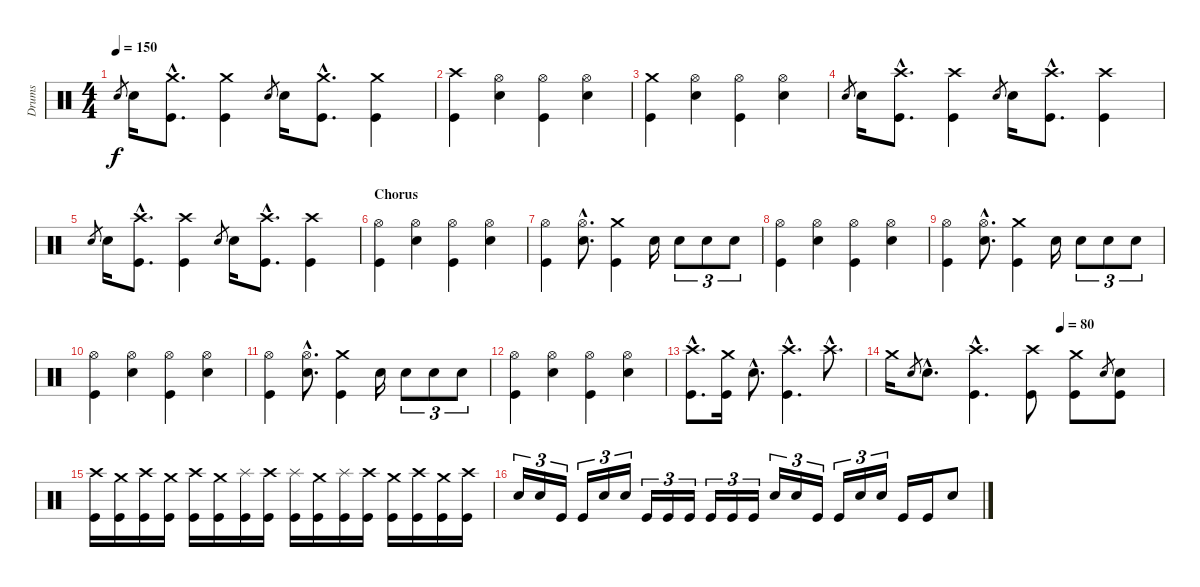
\track ("Drums" "Drums") {instrument percussion}
\staff {score}
\articulation defaults
\ts (4 4)
\tempo 150
\clef neutral
\ks c "Snare (hit) 2".8{gr dy f} "Snare (hit) 2".16
("Crash medium (hit)"{hac} "Kick (hit)"{hac}).8{d} ("Crash medium (hit)" "Kick (hit)").4 "Snare (hit) 2".8{gr} "Snare (hit) 2".16 ("Crash medium (hit)"{hac} "Kick (hit)"{hac}).8{d} ("Crash medium (hit)" "Kick (hit)").4 |
("Crash high (hit)" "Kick (hit)").4 ("Hi-Hat (open)" "Snare (hit) 2").4 ("Hi-Hat (open)" "Kick (hit)").4 ("Hi-Hat (open)" "Snare (hit) 2").4 |
("Crash medium (hit)" "Kick (hit)").4 ("Hi-Hat (open)" "Snare (hit) 2").4 ("Hi-Hat (open)" "Kick (hit)").4 ("Hi-Hat (open)" "Snare (hit) 2").4 |
"Snare (hit) 2".8{gr} "Snare (hit) 2".16 ("Crash high (hit)"{hac} "Kick (hit)"{hac}).8{d} ("Crash high (hit)" "Kick (hit)").4 "Snare (hit) 2".8{gr} "Snare (hit) 2".16 ("Crash high (hit)"{hac} "Kick (hit)"{hac}).8{d} ("Crash high (hit)" "Kick (hit)").4 |
"Snare (hit) 2".8{gr} "Snare (hit) 2".16 ("Crash high (hit)"{hac} "Kick (hit)"{hac}).8{d} ("Crash high (hit)" "Kick (hit)").4 "Snare (hit) 2".8{gr} "Snare (hit) 2".16 ("Crash high (hit)"{hac} "Kick (hit)"{hac}).8{d} ("Crash high (hit)" "Kick (hit)").4 |
\section ("" "Chorus")
("Hi-Hat (open)" "Kick (hit)").4 ("Hi-Hat (open)" "Snare (hit) 2").4 ("Hi-Hat (open)" "Kick (hit)").4 ("Hi-Hat (open)" "Snare (hit) 2").4 |
("Hi-Hat (open)" "Kick (hit)").4 ("Hi-Hat (open)"{hac} "Snare (hit) 2"{hac}).8{d} ("Crash medium (hit)" "Kick (hit)").4 "Snare (hit) 2".16 "Snare (hit) 2".8{tu (3 2)} "Snare (hit) 2".8{tu (3 2)} "Snare (hit) 2".8{tu (3 2)} |
("Hi-Hat (open)" "Kick (hit)").4 ("Hi-Hat (open)" "Snare (hit) 2").4 ("Hi-Hat (open)" "Kick (hit)").4 ("Hi-Hat (open)" "Snare (hit) 2").4 |
("Hi-Hat (open)" "Kick (hit)").4 ("Hi-Hat (open)"{hac} "Snare (hit) 2"{hac}).8{d} ("Crash medium (hit)" "Kick (hit)").4 "Snare (hit) 2".16 "Snare (hit) 2".8{tu (3 2)} "Snare (hit) 2".8{tu (3 2)} "Snare (hit) 2".8{tu (3 2)} |
("Hi-Hat (open)" "Kick (hit)").4 ("Hi-Hat (open)" "Snare (hit) 2").4 ("Hi-Hat (open)" "Kick (hit)").4 ("Hi-Hat (open)" "Snare (hit) 2").4 |
("Hi-Hat (open)" "Kick (hit)").4 ("Hi-Hat (open)"{hac} "Snare (hit) 2"{hac}).8{d} ("Crash medium (hit)" "Kick (hit)").4 "Snare (hit) 2".16 "Snare (hit) 2".8{tu (3 2)} "Snare (hit) 2".8{tu (3 2)} "Snare (hit) 2".8{tu (3 2)} |
("Hi-Hat (open)" "Kick (hit)").4 ("Hi-Hat (open)" "Snare (hit) 2").4 ("Hi-Hat (open)" "Kick (hit)").4 ("Hi-Hat (open)" "Snare (hit) 2").4 |
("Crash high (hit)"{hac} "Kick (hit)"{hac}).8{d} ("Crash medium (hit)" "Kick (hit)").16 "Snare (hit) 2"{hac}.8{d} ("Crash high (hit)"{hac} "Kick (hit)"{hac}).4{d} "Crash high (hit)"{hac}.8{d} |
\tempo (80 0.625)
"Crash medium (hit)".16 "Snare (hit) 2".8{gr} "Snare (hit) 2"{hac}.8{d} ("Crash high (hit)"{hac} "Kick (hit)"{hac}).4{d} ("Crash high (hit)" "Kick (hit)").8 ("Crash medium (hit)" "Kick (hit)").8 "Snare (hit) 2".8{gr} ("Snare (hit) 2" "Kick (hit)").8 |
("Crash high (hit)" "Kick (hit)").16 ("Crash medium (hit)" "Kick (hit)").16 ("Crash high (hit)" "Kick (hit)").16 ("Crash medium (hit)" "Kick (hit)").16 ("Crash high (hit)" "Kick (hit)").16 ("Crash medium (hit)" "Kick (hit)").16 ("Splash (hit)" "Kick (hit)").16 ("Crash high (hit)" "Kick (hit)").16 ("Splash (hit)" "Kick (hit)").16 ("Crash medium (hit)" "Kick (hit)").16 ("Splash (hit)" "Kick (hit)").16 ("Crash high (hit)" "Kick (hit)").16 ("Crash medium (hit)" "Kick (hit)").16 ("Crash high (hit)" "Kick (hit)").16 ("Crash medium (hit)" "Kick (hit)").16 ("Crash high (hit)" "Kick (hit)").16 |
"Snare (hit) 2".16{tu (3 2)} "Snare (hit) 2".16{tu (3 2)} "Kick (hit)".16{tu (3 2)} "Kick (hit)".16{tu (3 2)} "Snare (hit) 2".16{tu (3 2)} "Snare (hit) 2".16{tu (3 2)} "Kick (hit)".16{tu (3 2)} "Kick (hit)".16{tu (3 2)} "Kick (hit)".16{tu (3 2)} "Kick (hit)".16{tu (3 2)} "Kick (hit)".16{tu (3 2)} "Kick (hit)".16{tu (3 2)} "Snare (hit) 2".16{tu (3 2)} "Snare (hit) 2".16{tu (3 2)} "Kick (hit)".16{tu (3 2)} "Kick (hit)".16{tu (3 2)} "Snare (hit) 2".16{tu (3 2)} "Snare (hit) 2".16{tu (3 2)} "Kick (hit)".16 "Kick (hit)".16 "Snare (hit) 2".8
